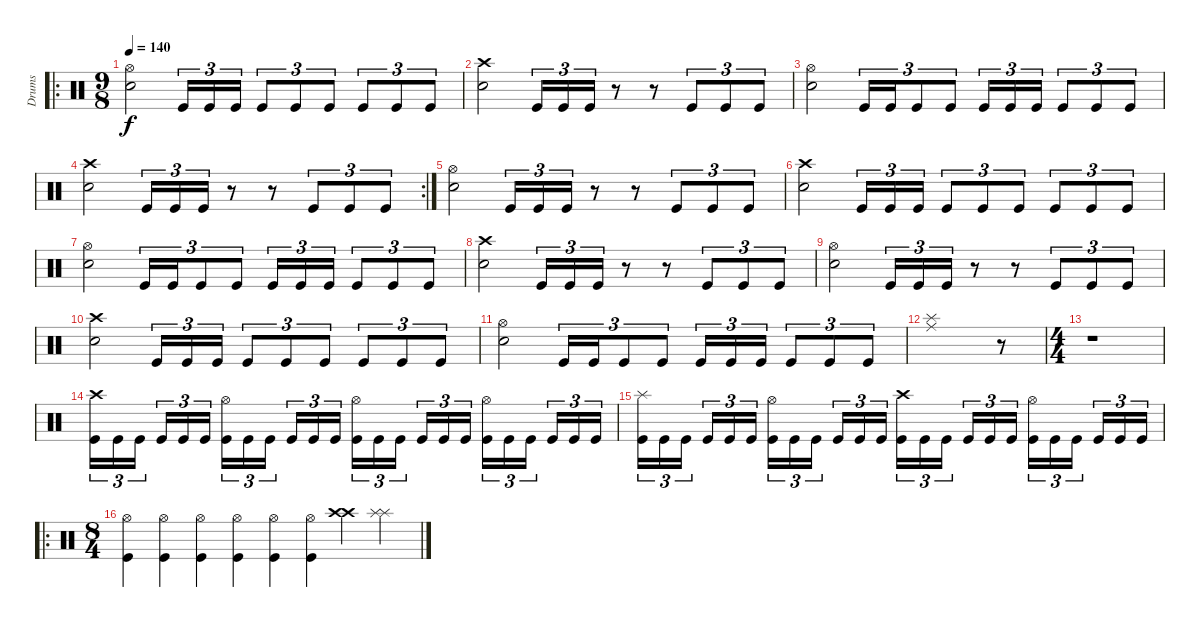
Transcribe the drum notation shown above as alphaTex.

\track ("Drums" "Drums") {instrument percussion}
\staff {score}
\articulation defaults
\ro
\ts (9 8)
\tempo 140
\clef neutral
\ks c
("Snare (hit) 2" "Hi-Hat (open)").2{dy f} "Kick (hit)".16{tu (3 2)} "Kick (hit)".16{tu (3 2)} "Kick (hit)".16{tu (3 2)} "Kick (hit)".8{tu (3 2)} "Kick (hit)".8{tu (3 2)} "Kick (hit)".8{tu (3 2)} "Kick (hit)".8{tu (3 2)} "Kick (hit)".8{tu (3 2)} "Kick (hit)".8{tu (3 2)} |
("Snare (hit) 2" "Crash high (hit)").2 "Kick (hit)".16{tu (3 2)} "Kick (hit)".16{tu (3 2)} "Kick (hit)".16{tu (3 2)} r.8 r.8 "Kick (hit)".8{tu (3 2)} "Kick (hit)".8{tu (3 2)} "Kick (hit)".8{tu (3 2)} |
("Snare (hit) 2" "Hi-Hat (open)").2 "Kick (hit)".16{tu (3 2)} "Kick (hit)".16{tu (3 2)} "Kick (hit)".8{tu (3 2)} "Kick (hit)".8{tu (3 2)} "Kick (hit)".16{tu (3 2)} "Kick (hit)".16{tu (3 2)} "Kick (hit)".16{tu (3 2)} "Kick (hit)".8{tu (3 2)} "Kick (hit)".8{tu (3 2)} "Kick (hit)".8{tu (3 2)} |
\rc 2
("Snare (hit) 2" "Crash high (hit)").2 "Kick (hit)".16{tu (3 2)} "Kick (hit)".16{tu (3 2)} "Kick (hit)".16{tu (3 2)} r.8 r.8 "Kick (hit)".8{tu (3 2)} "Kick (hit)".8{tu (3 2)} "Kick (hit)".8{tu (3 2)} |
("Snare (hit) 2" "Hi-Hat (open)").2 "Kick (hit)".16{tu (3 2)} "Kick (hit)".16{tu (3 2)} "Kick (hit)".16{tu (3 2)} r.8 r.8 "Kick (hit)".8{tu (3 2)} "Kick (hit)".8{tu (3 2)} "Kick (hit)".8{tu (3 2)} |
("Snare (hit) 2" "Crash high (hit)").2 "Kick (hit)".16{tu (3 2)} "Kick (hit)".16{tu (3 2)} "Kick (hit)".16{tu (3 2)} "Kick (hit)".8{tu (3 2)} "Kick (hit)".8{tu (3 2)} "Kick (hit)".8{tu (3 2)} "Kick (hit)".8{tu (3 2)} "Kick (hit)".8{tu (3 2)} "Kick (hit)".8{tu (3 2)} |
("Snare (hit) 2" "Hi-Hat (open)").2 "Kick (hit)".16{tu (3 2)} "Kick (hit)".16{tu (3 2)} "Kick (hit)".8{tu (3 2)} "Kick (hit)".8{tu (3 2)} "Kick (hit)".16{tu (3 2)} "Kick (hit)".16{tu (3 2)} "Kick (hit)".16{tu (3 2)} "Kick (hit)".8{tu (3 2)} "Kick (hit)".8{tu (3 2)} "Kick (hit)".8{tu (3 2)} |
("Snare (hit) 2" "Crash high (hit)").2 "Kick (hit)".16{tu (3 2)} "Kick (hit)".16{tu (3 2)} "Kick (hit)".16{tu (3 2)} r.8 r.8 "Kick (hit)".8{tu (3 2)} "Kick (hit)".8{tu (3 2)} "Kick (hit)".8{tu (3 2)} |
("Snare (hit) 2" "Hi-Hat (open)").2 "Kick (hit)".16{tu (3 2)} "Kick (hit)".16{tu (3 2)} "Kick (hit)".16{tu (3 2)} r.8 r.8 "Kick (hit)".8{tu (3 2)} "Kick (hit)".8{tu (3 2)} "Kick (hit)".8{tu (3 2)} |
("Snare (hit) 2" "Crash high (hit)").2 "Kick (hit)".16{tu (3 2)} "Kick (hit)".16{tu (3 2)} "Kick (hit)".16{tu (3 2)} "Kick (hit)".8{tu (3 2)} "Kick (hit)".8{tu (3 2)} "Kick (hit)".8{tu (3 2)} "Kick (hit)".8{tu (3 2)} "Kick (hit)".8{tu (3 2)} "Kick (hit)".8{tu (3 2)} |
("Snare (hit) 2" "Hi-Hat (open)").2 "Kick (hit)".16{tu (3 2)} "Kick (hit)".16{tu (3 2)} "Kick (hit)".8{tu (3 2)} "Kick (hit)".8{tu (3 2)} "Kick (hit)".16{tu (3 2)} "Kick (hit)".16{tu (3 2)} "Kick (hit)".16{tu (3 2)} "Kick (hit)".8{tu (3 2)} "Kick (hit)".8{tu (3 2)} "Kick (hit)".8{tu (3 2)} |
("Ride (middle)" "Splash (hit)").1 r.8 |
\ts (4 4)
r.1 |
("Crash high (hit)" "Kick (hit)").16{tu (3 2)} "Kick (hit)".16{tu (3 2)} "Kick (hit)".16{tu (3 2)} "Kick (hit)".16{tu (3 2)} "Kick (hit)".16{tu (3 2)} "Kick (hit)".16{tu (3 2)} ("Hi-Hat (open)" "Kick (hit)").16{tu (3 2)} "Kick (hit)".16{tu (3 2)} "Kick (hit)".16{tu (3 2)} "Kick (hit)".16{tu (3 2)} "Kick (hit)".16{tu (3 2)} "Kick (hit)".16{tu (3 2)} ("Hi-Hat (open)" "Kick (hit)").16{tu (3 2)} "Kick (hit)".16{tu (3 2)} "Kick (hit)".16{tu (3 2)} "Kick (hit)".16{tu (3 2)} "Kick (hit)".16{tu (3 2)} "Kick (hit)".16{tu (3 2)} ("Hi-Hat (open)" "Kick (hit)").16{tu (3 2)} "Kick (hit)".16{tu (3 2)} "Kick (hit)".16{tu (3 2)} "Kick (hit)".16{tu (3 2)} "Kick (hit)".16{tu (3 2)} "Kick (hit)".16{tu (3 2)} |
("Splash (hit)" "Kick (hit)").16{tu (3 2)} "Kick (hit)".16{tu (3 2)} "Kick (hit)".16{tu (3 2)} "Kick (hit)".16{tu (3 2)} "Kick (hit)".16{tu (3 2)} "Kick (hit)".16{tu (3 2)} ("Hi-Hat (open)" "Kick (hit)").16{tu (3 2)} "Kick (hit)".16{tu (3 2)} "Kick (hit)".16{tu (3 2)} "Kick (hit)".16{tu (3 2)} "Kick (hit)".16{tu (3 2)} "Kick (hit)".16{tu (3 2)} ("Crash high (hit)" "Kick (hit)").16{tu (3 2)} "Kick (hit)".16{tu (3 2)} "Kick (hit)".16{tu (3 2)} "Kick (hit)".16{tu (3 2)} "Kick (hit)".16{tu (3 2)} "Kick (hit)".16{tu (3 2)} ("Hi-Hat (open)" "Kick (hit)").16{tu (3 2)} "Kick (hit)".16{tu (3 2)} "Kick (hit)".16{tu (3 2)} "Kick (hit)".16{tu (3 2)} "Kick (hit)".16{tu (3 2)} "Kick (hit)".16{tu (3 2)} |
\ro
\ts (8 4)
("Hi-Hat (open)" "Kick (hit)").4 ("Hi-Hat (open)" "Kick (hit)").4 ("Hi-Hat (open)" "Kick (hit)").4 ("Hi-Hat (open)" "Kick (hit)").4 ("Hi-Hat (open)" "Kick (hit)").4 ("Hi-Hat (open)" "Kick (hit)").4 ("Crash high (hit)" "Crash high (hit)").4 ("Splash (hit)" "Splash (hit)").4
